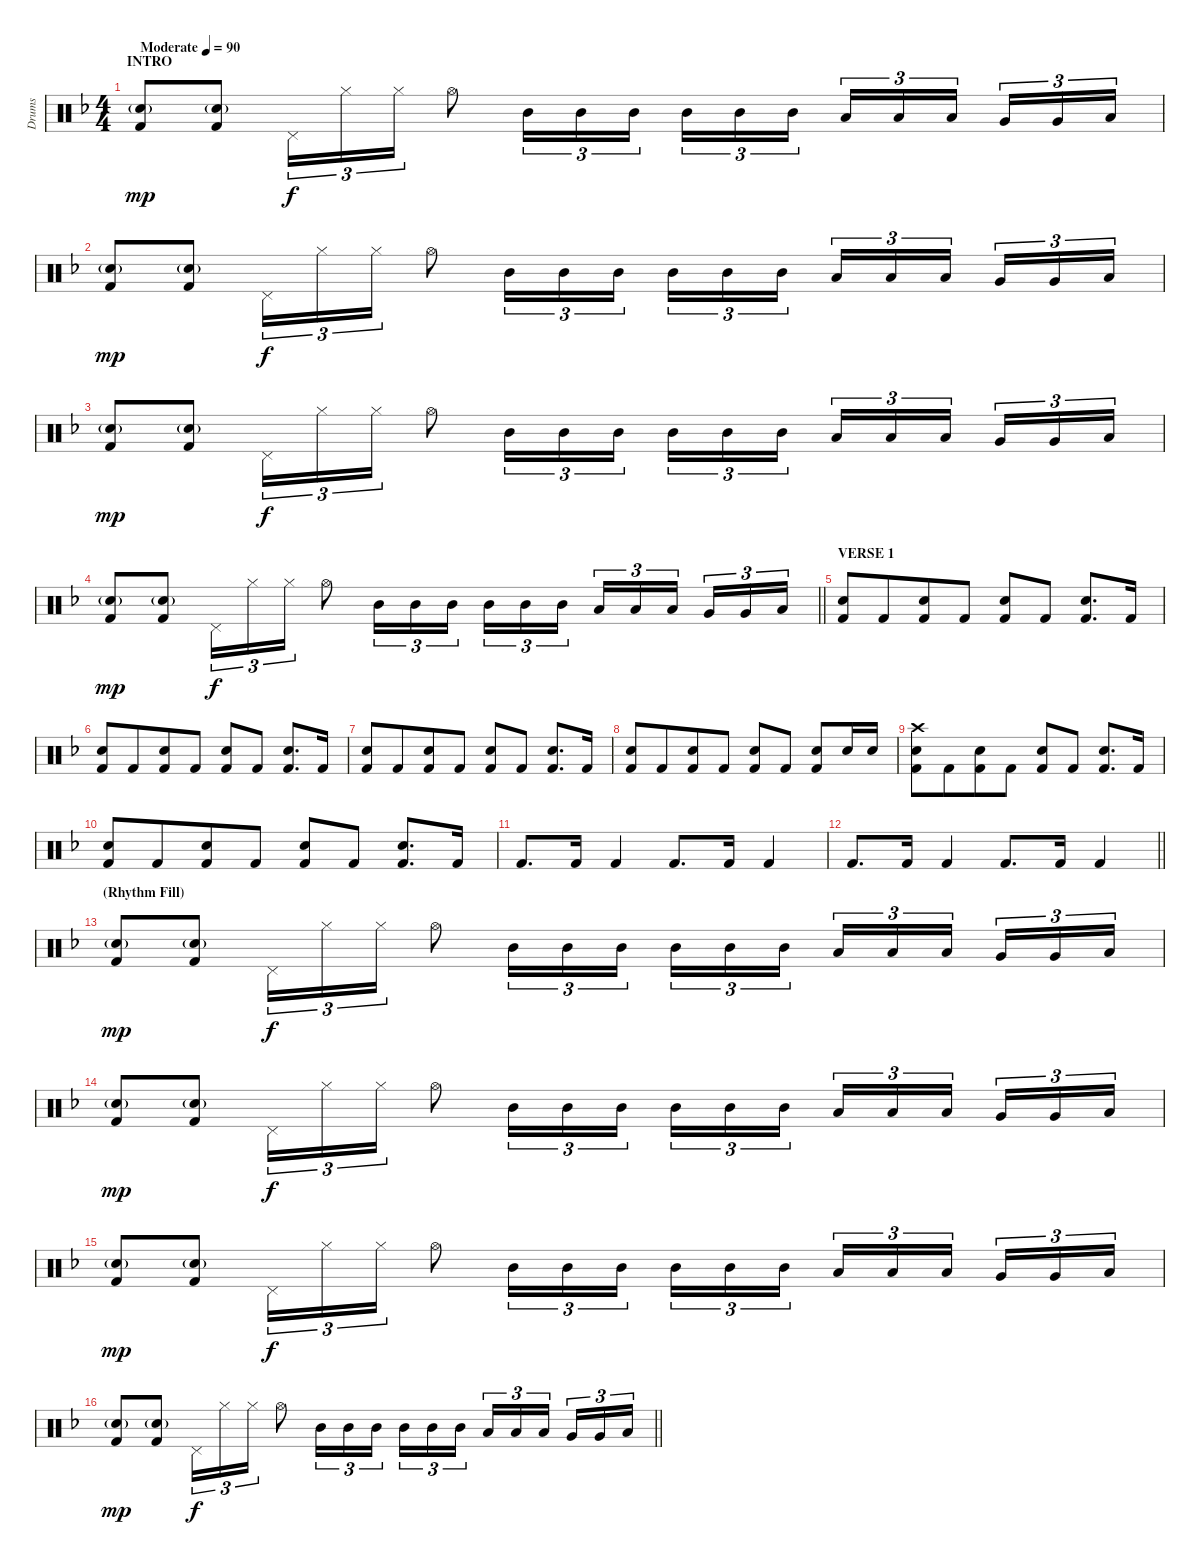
\track ("Drums" "Drums") {instrument percussion}
\staff {score}
\articulation defaults
\ts (4 4)
\section ("" "INTRO")
\tempo (90 "Moderate")
\clef neutral
\ks dminor
("Hand Clap (hit)"{g} "Kick (hit) 2").8{dy mp} ("Hand Clap (hit)"{g} "Kick (hit) 2").8 "Pedal Hi-Hat (hit)".16{tu (3 2) dy f} "Hi-Hat (closed)".16{tu (3 2)} "Hi-Hat (closed)".16{tu (3 2)} "Hi-Hat (open)".8 "Mid Tom (hit)".16{tu (3 2)} "Mid Tom (hit)".16{tu (3 2)} "Mid Tom (hit)".16{tu (3 2) beam splitsecondary} "Mid Tom (hit)".16{tu (3 2)} "Mid Tom (hit)".16{tu (3 2)} "Mid Tom (hit)".16{tu (3 2)} "Low Tom (hit)".16{tu (3 2)} "Low Tom (hit)".16{tu (3 2)} "Low Tom (hit)".16{tu (3 2) beam splitsecondary} "Very Low Tom (hit)".16{tu (3 2)} "Very Low Tom (hit)".16{tu (3 2)} "Low Floor Tom (hit)".16{tu (3 2)} |
("Hand Clap (hit)"{g} "Kick (hit) 2").8{dy mp} ("Hand Clap (hit)"{g} "Kick (hit) 2").8 "Pedal Hi-Hat (hit)".16{tu (3 2) dy f} "Hi-Hat (closed)".16{tu (3 2)} "Hi-Hat (closed)".16{tu (3 2)} "Hi-Hat (open)".8 "Mid Tom (hit)".16{tu (3 2)} "Mid Tom (hit)".16{tu (3 2)} "Mid Tom (hit)".16{tu (3 2) beam splitsecondary} "Mid Tom (hit)".16{tu (3 2)} "Mid Tom (hit)".16{tu (3 2)} "Mid Tom (hit)".16{tu (3 2)} "Low Tom (hit)".16{tu (3 2)} "Low Tom (hit)".16{tu (3 2)} "Low Tom (hit)".16{tu (3 2) beam splitsecondary} "Very Low Tom (hit)".16{tu (3 2)} "Very Low Tom (hit)".16{tu (3 2)} "Low Floor Tom (hit)".16{tu (3 2)} |
("Hand Clap (hit)"{g} "Kick (hit) 2").8{dy mp} ("Hand Clap (hit)"{g} "Kick (hit) 2").8 "Pedal Hi-Hat (hit)".16{tu (3 2) dy f} "Hi-Hat (closed)".16{tu (3 2)} "Hi-Hat (closed)".16{tu (3 2)} "Hi-Hat (open)".8 "Mid Tom (hit)".16{tu (3 2)} "Mid Tom (hit)".16{tu (3 2)} "Mid Tom (hit)".16{tu (3 2) beam splitsecondary} "Mid Tom (hit)".16{tu (3 2)} "Mid Tom (hit)".16{tu (3 2)} "Mid Tom (hit)".16{tu (3 2)} "Low Tom (hit)".16{tu (3 2)} "Low Tom (hit)".16{tu (3 2)} "Low Tom (hit)".16{tu (3 2) beam splitsecondary} "Very Low Tom (hit)".16{tu (3 2)} "Very Low Tom (hit)".16{tu (3 2)} "Low Floor Tom (hit)".16{tu (3 2)} |
\barLineRight lightlight
("Hand Clap (hit)"{g} "Kick (hit) 2").8{dy mp} ("Hand Clap (hit)"{g} "Kick (hit) 2").8 "Pedal Hi-Hat (hit)".16{tu (3 2) dy f} "Hi-Hat (closed)".16{tu (3 2)} "Hi-Hat (closed)".16{tu (3 2)} "Hi-Hat (open)".8 "Mid Tom (hit)".16{tu (3 2)} "Mid Tom (hit)".16{tu (3 2)} "Mid Tom (hit)".16{tu (3 2) beam splitsecondary} "Mid Tom (hit)".16{tu (3 2)} "Mid Tom (hit)".16{tu (3 2)} "Mid Tom (hit)".16{tu (3 2)} "Low Tom (hit)".16{tu (3 2)} "Low Tom (hit)".16{tu (3 2)} "Low Tom (hit)".16{tu (3 2) beam splitsecondary} "Very Low Tom (hit)".16{tu (3 2)} "Very Low Tom (hit)".16{tu (3 2)} "Low Floor Tom (hit)".16{tu (3 2)} |
\section ("" "VERSE 1")
("Electric Snare (hit)" "Kick (hit) 2").8 "Kick (hit) 2".8{beam merge} ("Electric Snare (hit)" "Kick (hit) 2").8 "Kick (hit) 2".8 ("Electric Snare (hit)" "Kick (hit) 2").8 "Kick (hit) 2".8 ("Electric Snare (hit)" "Kick (hit) 2").8{d} "Kick (hit) 2".16 |
("Electric Snare (hit)" "Kick (hit) 2").8 "Kick (hit) 2".8{beam merge} ("Electric Snare (hit)" "Kick (hit) 2").8 "Kick (hit) 2".8 ("Electric Snare (hit)" "Kick (hit) 2").8 "Kick (hit) 2".8 ("Electric Snare (hit)" "Kick (hit) 2").8{d} "Kick (hit) 2".16 |
("Electric Snare (hit)" "Kick (hit) 2").8 "Kick (hit) 2".8{beam merge} ("Electric Snare (hit)" "Kick (hit) 2").8 "Kick (hit) 2".8 ("Electric Snare (hit)" "Kick (hit) 2").8 "Kick (hit) 2".8 ("Electric Snare (hit)" "Kick (hit) 2").8{d} "Kick (hit) 2".16 |
("Electric Snare (hit)" "Kick (hit) 2").8 "Kick (hit) 2".8{beam merge} ("Electric Snare (hit)" "Kick (hit) 2").8 "Kick (hit) 2".8 ("Electric Snare (hit)" "Kick (hit) 2").8 "Kick (hit) 2".8 ("Electric Snare (hit)" "Kick (hit) 2").8 "Electric Snare (hit)".16 "Electric Snare (hit)".16 |
("Crash high (hit)" "Electric Snare (hit)" "Kick (hit) 2").8 "Kick (hit) 2".8{beam merge} ("Electric Snare (hit)" "Kick (hit) 2").8 "Kick (hit) 2".8 ("Electric Snare (hit)" "Kick (hit) 2").8 "Kick (hit) 2".8 ("Electric Snare (hit)" "Kick (hit) 2").8{d} "Kick (hit) 2".16 |
("Electric Snare (hit)" "Kick (hit) 2").8 "Kick (hit) 2".8{beam merge} ("Electric Snare (hit)" "Kick (hit) 2").8 "Kick (hit) 2".8 ("Electric Snare (hit)" "Kick (hit) 2").8 "Kick (hit) 2".8 ("Electric Snare (hit)" "Kick (hit) 2").8{d} "Kick (hit) 2".16 |
"Kick (hit) 2".8{d} "Kick (hit) 2".16 "Kick (hit) 2".4 "Kick (hit) 2".8{d} "Kick (hit) 2".16 "Kick (hit) 2".4 |
\barLineRight lightlight "Kick (hit) 2".8{d} "Kick (hit) 2".16 "Kick (hit) 2".4 "Kick (hit) 2".8{d} "Kick (hit) 2".16 "Kick (hit) 2".4
|
\section ("" "(Rhythm Fill)")
("Hand Clap (hit)"{g} "Kick (hit) 2").8{dy mp} ("Hand Clap (hit)"{g} "Kick (hit) 2").8 "Pedal Hi-Hat (hit)".16{tu (3 2) dy f} "Hi-Hat (closed)".16{tu (3 2)} "Hi-Hat (closed)".16{tu (3 2)} "Hi-Hat (open)".8 "Mid Tom (hit)".16{tu (3 2)} "Mid Tom (hit)".16{tu (3 2)} "Mid Tom (hit)".16{tu (3 2) beam splitsecondary} "Mid Tom (hit)".16{tu (3 2)} "Mid Tom (hit)".16{tu (3 2)} "Mid Tom (hit)".16{tu (3 2)} "Low Tom (hit)".16{tu (3 2)} "Low Tom (hit)".16{tu (3 2)} "Low Tom (hit)".16{tu (3 2) beam splitsecondary} "Very Low Tom (hit)".16{tu (3 2)} "Very Low Tom (hit)".16{tu (3 2)} "Low Floor Tom (hit)".16{tu (3 2)} |
("Hand Clap (hit)"{g} "Kick (hit) 2").8{dy mp} ("Hand Clap (hit)"{g} "Kick (hit) 2").8 "Pedal Hi-Hat (hit)".16{tu (3 2) dy f} "Hi-Hat (closed)".16{tu (3 2)} "Hi-Hat (closed)".16{tu (3 2)} "Hi-Hat (open)".8 "Mid Tom (hit)".16{tu (3 2)} "Mid Tom (hit)".16{tu (3 2)} "Mid Tom (hit)".16{tu (3 2) beam splitsecondary} "Mid Tom (hit)".16{tu (3 2)} "Mid Tom (hit)".16{tu (3 2)} "Mid Tom (hit)".16{tu (3 2)} "Low Tom (hit)".16{tu (3 2)} "Low Tom (hit)".16{tu (3 2)} "Low Tom (hit)".16{tu (3 2) beam splitsecondary} "Very Low Tom (hit)".16{tu (3 2)} "Very Low Tom (hit)".16{tu (3 2)} "Low Floor Tom (hit)".16{tu (3 2)} |
("Hand Clap (hit)"{g} "Kick (hit) 2").8{dy mp} ("Hand Clap (hit)"{g} "Kick (hit) 2").8 "Pedal Hi-Hat (hit)".16{tu (3 2) dy f} "Hi-Hat (closed)".16{tu (3 2)} "Hi-Hat (closed)".16{tu (3 2)} "Hi-Hat (open)".8 "Mid Tom (hit)".16{tu (3 2)} "Mid Tom (hit)".16{tu (3 2)} "Mid Tom (hit)".16{tu (3 2) beam splitsecondary} "Mid Tom (hit)".16{tu (3 2)} "Mid Tom (hit)".16{tu (3 2)} "Mid Tom (hit)".16{tu (3 2)} "Low Tom (hit)".16{tu (3 2)} "Low Tom (hit)".16{tu (3 2)} "Low Tom (hit)".16{tu (3 2) beam splitsecondary} "Very Low Tom (hit)".16{tu (3 2)} "Very Low Tom (hit)".16{tu (3 2)} "Low Floor Tom (hit)".16{tu (3 2)} |
\barLineRight lightlight
("Hand Clap (hit)"{g} "Kick (hit) 2").8{dy mp} ("Hand Clap (hit)"{g} "Kick (hit) 2").8 "Pedal Hi-Hat (hit)".16{tu (3 2) dy f} "Hi-Hat (closed)".16{tu (3 2)} "Hi-Hat (closed)".16{tu (3 2)} "Hi-Hat (open)".8 "Mid Tom (hit)".16{tu (3 2)} "Mid Tom (hit)".16{tu (3 2)} "Mid Tom (hit)".16{tu (3 2) beam splitsecondary} "Mid Tom (hit)".16{tu (3 2)} "Mid Tom (hit)".16{tu (3 2)} "Mid Tom (hit)".16{tu (3 2)} "Low Tom (hit)".16{tu (3 2)} "Low Tom (hit)".16{tu (3 2)} "Low Tom (hit)".16{tu (3 2) beam splitsecondary} "Very Low Tom (hit)".16{tu (3 2)} "Very Low Tom (hit)".16{tu (3 2)} "Low Floor Tom (hit)".16{tu (3 2)}
